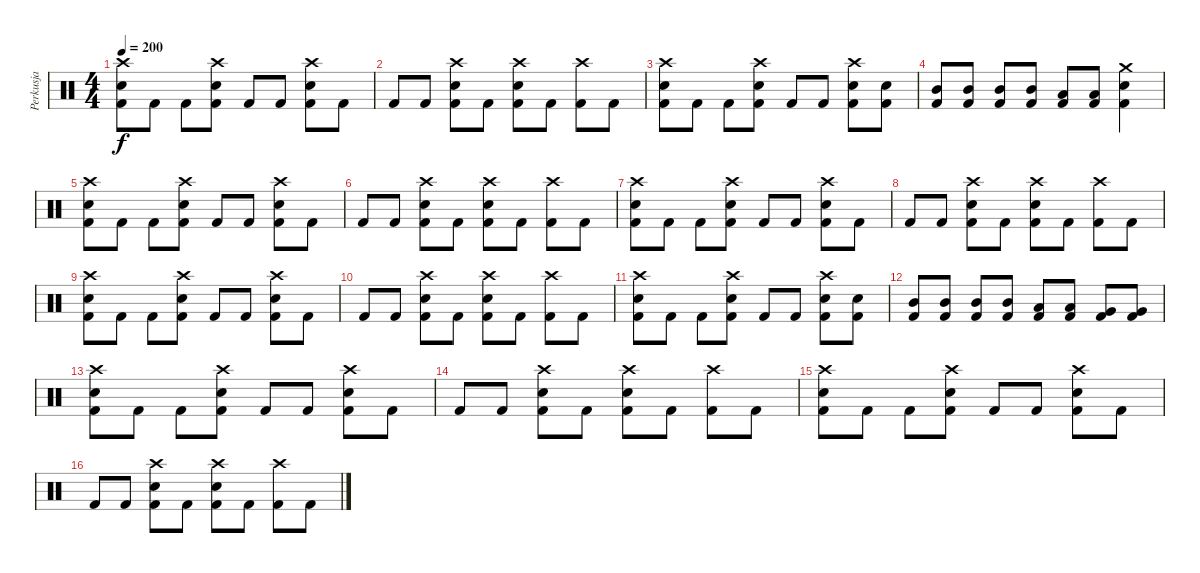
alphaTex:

\track ("Perkusja" "Perkusja") {instrument percussion}
\staff {score}
\articulation defaults
\ts (4 4)
\tempo 200
\clef neutral
\ks c
("Crash high (hit)" "Electric Snare (hit)" "Kick (hit) 2").8{dy f} "Kick (hit) 2".8 "Kick (hit) 2".8 ("Crash high (hit)" "Electric Snare (hit)" "Kick (hit) 2").8 "Kick (hit) 2".8 "Kick (hit) 2".8 ("Crash high (hit)" "Electric Snare (hit)" "Kick (hit) 2").8 "Kick (hit) 2".8 |
"Kick (hit) 2".8 "Kick (hit) 2".8 ("Crash high (hit)" "Electric Snare (hit)" "Kick (hit) 2").8 "Kick (hit) 2".8 ("Crash high (hit)" "Electric Snare (hit)" "Kick (hit) 2").8 "Kick (hit) 2".8 ("Crash high (hit)" "Kick (hit) 2").8 "Kick (hit) 2".8 |
("Crash high (hit)" "Electric Snare (hit)" "Kick (hit) 2").8 "Kick (hit) 2".8 "Kick (hit) 2".8 ("Crash high (hit)" "Electric Snare (hit)" "Kick (hit) 2").8 "Kick (hit) 2".8 "Kick (hit) 2".8 ("Crash high (hit)" "Electric Snare (hit)" "Kick (hit) 2").8 ("Electric Snare (hit)" "Kick (hit) 2").8 |
("Mid Tom (hit)" "Kick (hit) 2").8 ("Mid Tom (hit)" "Kick (hit) 2").8 ("Mid Tom (hit)" "Kick (hit) 2").8 ("Mid Tom (hit)" "Kick (hit) 2").8 ("Low Tom (hit)" "Kick (hit) 2").8 ("Low Tom (hit)" "Kick (hit) 2").8 ("Crash medium (hit)" "Electric Snare (hit)" "Kick (hit) 2").4 |
("Crash high (hit)" "Electric Snare (hit)" "Kick (hit) 2").8 "Kick (hit) 2".8 "Kick (hit) 2".8 ("Crash high (hit)" "Electric Snare (hit)" "Kick (hit) 2").8 "Kick (hit) 2".8 "Kick (hit) 2".8 ("Crash high (hit)" "Electric Snare (hit)" "Kick (hit) 2").8 "Kick (hit) 2".8 |
"Kick (hit) 2".8 "Kick (hit) 2".8 ("Crash high (hit)" "Electric Snare (hit)" "Kick (hit) 2").8 "Kick (hit) 2".8 ("Crash high (hit)" "Electric Snare (hit)" "Kick (hit) 2").8 "Kick (hit) 2".8 ("Crash high (hit)" "Kick (hit) 2").8 "Kick (hit) 2".8 |
("Crash high (hit)" "Electric Snare (hit)" "Kick (hit) 2").8 "Kick (hit) 2".8 "Kick (hit) 2".8 ("Crash high (hit)" "Electric Snare (hit)" "Kick (hit) 2").8 "Kick (hit) 2".8 "Kick (hit) 2".8 ("Crash high (hit)" "Electric Snare (hit)" "Kick (hit) 2").8 "Kick (hit) 2".8 |
"Kick (hit) 2".8 "Kick (hit) 2".8 ("Crash high (hit)" "Electric Snare (hit)" "Kick (hit) 2").8 "Kick (hit) 2".8 ("Crash high (hit)" "Electric Snare (hit)" "Kick (hit) 2").8 "Kick (hit) 2".8 ("Crash high (hit)" "Kick (hit) 2").8 "Kick (hit) 2".8 |
("Crash high (hit)" "Electric Snare (hit)" "Kick (hit) 2").8 "Kick (hit) 2".8 "Kick (hit) 2".8 ("Crash high (hit)" "Electric Snare (hit)" "Kick (hit) 2").8 "Kick (hit) 2".8 "Kick (hit) 2".8 ("Crash high (hit)" "Electric Snare (hit)" "Kick (hit) 2").8 "Kick (hit) 2".8 |
"Kick (hit) 2".8 "Kick (hit) 2".8 ("Crash high (hit)" "Electric Snare (hit)" "Kick (hit) 2").8 "Kick (hit) 2".8 ("Crash high (hit)" "Electric Snare (hit)" "Kick (hit) 2").8 "Kick (hit) 2".8 ("Crash high (hit)" "Kick (hit) 2").8 "Kick (hit) 2".8 |
("Crash high (hit)" "Electric Snare (hit)" "Kick (hit) 2").8 "Kick (hit) 2".8 "Kick (hit) 2".8 ("Crash high (hit)" "Electric Snare (hit)" "Kick (hit) 2").8 "Kick (hit) 2".8 "Kick (hit) 2".8 ("Crash high (hit)" "Electric Snare (hit)" "Kick (hit) 2").8 ("Electric Snare (hit)" "Kick (hit) 2").8 |
("Mid Tom (hit)" "Kick (hit) 2").8 ("Mid Tom (hit)" "Kick (hit) 2").8 ("Mid Tom (hit)" "Kick (hit) 2").8 ("Mid Tom (hit)" "Kick (hit) 2").8 ("Low Tom (hit)" "Kick (hit) 2").8 ("Low Tom (hit)" "Kick (hit) 2").8 ("Very Low Tom (hit)" "Kick (hit) 2").8 ("Very Low Tom (hit)" "Kick (hit) 2").8 |
("Crash high (hit)" "Electric Snare (hit)" "Kick (hit) 2").8 "Kick (hit) 2".8 "Kick (hit) 2".8 ("Crash high (hit)" "Electric Snare (hit)" "Kick (hit) 2").8 "Kick (hit) 2".8 "Kick (hit) 2".8 ("Crash high (hit)" "Electric Snare (hit)" "Kick (hit) 2").8 "Kick (hit) 2".8 |
"Kick (hit) 2".8 "Kick (hit) 2".8 ("Crash high (hit)" "Electric Snare (hit)" "Kick (hit) 2").8 "Kick (hit) 2".8 ("Crash high (hit)" "Electric Snare (hit)" "Kick (hit) 2").8 "Kick (hit) 2".8 ("Crash high (hit)" "Kick (hit) 2").8 "Kick (hit) 2".8 |
("Crash high (hit)" "Electric Snare (hit)" "Kick (hit) 2").8 "Kick (hit) 2".8 "Kick (hit) 2".8 ("Crash high (hit)" "Electric Snare (hit)" "Kick (hit) 2").8 "Kick (hit) 2".8 "Kick (hit) 2".8 ("Crash high (hit)" "Electric Snare (hit)" "Kick (hit) 2").8 "Kick (hit) 2".8 |
"Kick (hit) 2".8 "Kick (hit) 2".8 ("Crash high (hit)" "Electric Snare (hit)" "Kick (hit) 2").8 "Kick (hit) 2".8 ("Crash high (hit)" "Electric Snare (hit)" "Kick (hit) 2").8 "Kick (hit) 2".8 ("Crash high (hit)" "Kick (hit) 2").8 "Kick (hit) 2".8
